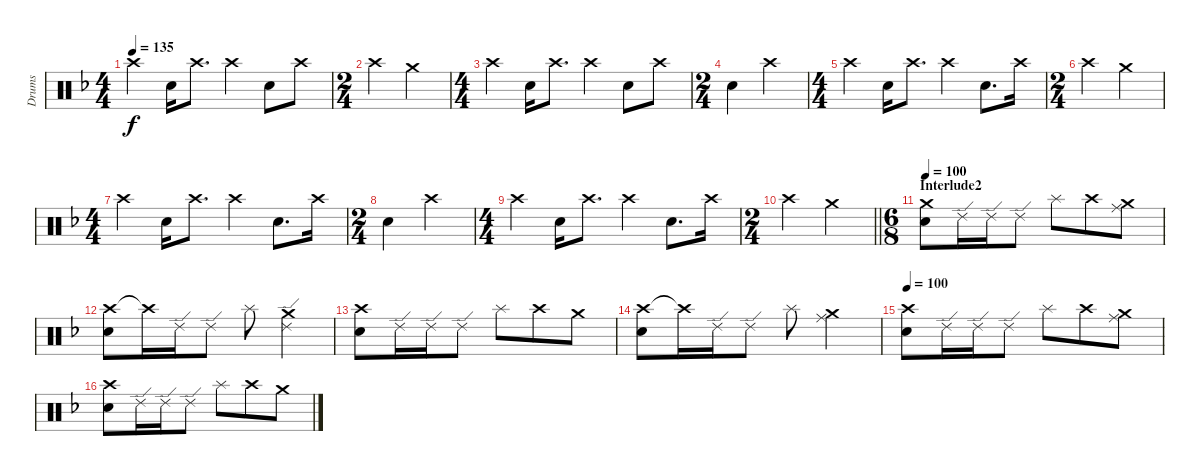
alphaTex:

\track ("Drums" "Drums") {instrument percussion}
\staff {score}
\articulation defaults
\ts (4 4)
\tempo 135
\clef neutral
\ks dminor "Crash high (hit)".4{dy f} "Snare (hit) 2".16 "Crash high (hit)".8{d} "Crash high (hit)".4 "Snare (hit) 2".8 "Crash high (hit)".8
|
\ts (2 4)
"Crash high (hit)".4 "Crash medium (hit)".4 |
\ts (4 4)
"Crash high (hit)".4 "Snare (hit) 2".16 "Crash high (hit)".8{d} "Crash high (hit)".4 "Snare (hit) 2".8 "Crash high (hit)".8 |
\ts (2 4)
"Snare (hit) 2".4 "Crash high (hit)".4 |
\ts (4 4)
"Crash high (hit)".4 "Snare (hit) 2".16 "Crash high (hit)".8{d} "Crash high (hit)".4 "Snare (hit) 2".8{d} "Crash high (hit)".16 |
\ts (2 4)
"Crash high (hit)".4 "Crash medium (hit)".4 |
\ts (4 4)
"Crash high (hit)".4 "Snare (hit) 2".16 "Crash high (hit)".8{d} "Crash high (hit)".4 "Snare (hit) 2".8{d} "Crash high (hit)".16 |
\ts (2 4)
"Snare (hit) 2".4 "Crash high (hit)".4 |
\ts (4 4)
"Crash high (hit)".4 "Snare (hit) 2".16 "Crash high (hit)".8{d} "Crash high (hit)".4 "Snare (hit) 2".8{d} "Crash high (hit)".16 |
\ts (2 4)
\barLineRight lightlight "Crash high (hit)".4 "Crash medium (hit)".4
|
\ts (6 8)
\section ("" "Interlude2")
\tempo 90
\tempo 100
("Crash medium (hit)" "Snare (hit) 2").8 "Ride (edge) 2".16 "Ride (edge) 2".16 "Ride (edge) 2".8 "Splash (hit)".8 "Crash high (hit)".8 ("Ride (middle)" "Crash medium (hit)").8 |
("Crash high (hit)" "Snare (hit) 2").8 "Crash high (hit)"{t}.16 "Ride (edge) 2".16 "Ride (edge) 2".8 "Splash (hit)".8 ("Ride (edge) 2" "Crash medium (hit)").4 |
("Crash high (hit)" "Snare (hit) 2").8 "Ride (edge) 2".16 "Ride (edge) 2".16 "Ride (edge) 2".8 "Splash (hit)".8 "Crash high (hit)".8 "Crash medium (hit)".8 |
("Crash high (hit)" "Snare (hit) 2").8 "Crash high (hit)"{t}.16 "Ride (edge) 2".16 "Ride (edge) 2".8 "Splash (hit)".8 ("Ride (middle)" "Crash medium (hit)").4 |
\tempo 90
\tempo 100
("Crash high (hit)" "Snare (hit) 2").8 "Ride (edge) 2".16 "Ride (edge) 2".16 "Ride (edge) 2".8 "Splash (hit)".8 "Crash high (hit)".8 ("Ride (middle)" "Crash medium (hit)").8 |
("Crash high (hit)" "Snare (hit) 2").8 "Ride (edge) 2".16 "Ride (edge) 2".16 "Ride (edge) 2".8 "Splash (hit)".8 "Crash high (hit)".8 "Crash medium (hit)".8
